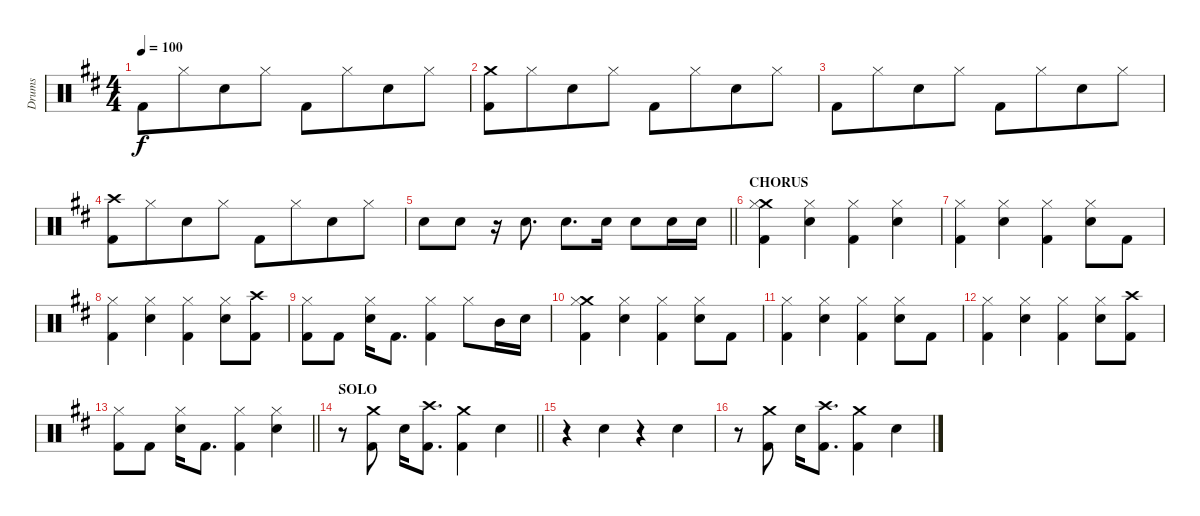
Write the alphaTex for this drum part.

\track ("Drums" "Drums") {instrument percussion}
\staff {score}
\articulation defaults
\ts (4 4)
\tempo 100
\clef neutral
\ks d "Kick (hit) 2".8{dy f} "Hi-Hat (closed)".8{beam merge} "Electric Snare (hit)".8 "Hi-Hat (closed)".8 "Kick (hit) 2".8 "Hi-Hat (closed)".8{beam merge} "Electric Snare (hit)".8 "Hi-Hat (closed)".8
|
("Crash medium (hit)" "Kick (hit) 2").8 "Hi-Hat (closed)".8{beam merge} "Electric Snare (hit)".8 "Hi-Hat (closed)".8 "Kick (hit) 2".8 "Hi-Hat (closed)".8{beam merge} "Electric Snare (hit)".8 "Hi-Hat (closed)".8 |
"Kick (hit) 2".8 "Hi-Hat (closed)".8{beam merge} "Electric Snare (hit)".8 "Hi-Hat (closed)".8 "Kick (hit) 2".8 "Hi-Hat (closed)".8{beam merge} "Electric Snare (hit)".8 "Hi-Hat (closed)".8 |
("Crash high (hit)" "Kick (hit) 2").8 "Hi-Hat (closed)".8{beam merge} "Electric Snare (hit)".8 "Hi-Hat (closed)".8 "Kick (hit) 2".8 "Hi-Hat (closed)".8{beam merge} "Electric Snare (hit)".8 "Hi-Hat (closed)".8 |
\barLineRight lightlight "Electric Snare (hit)".8 "Electric Snare (hit)".8
r.16 "Electric Snare (hit)".8{d} "Electric Snare (hit)".8{d} "Electric Snare (hit)".16 "Electric Snare (hit)".8 "Electric Snare (hit)".16 "Electric Snare (hit)".16 |
\section ("" "CHORUS")
("Crash medium (hit)" "Hi-Hat (closed)" "Kick (hit) 2").4{beam merge} ("Hi-Hat (closed)" "Electric Snare (hit)").4 ("Hi-Hat (closed)" "Kick (hit) 2").4{beam merge} ("Hi-Hat (closed)" "Electric Snare (hit)").4 |
("Hi-Hat (closed)" "Kick (hit) 2").4{beam merge} ("Hi-Hat (closed)" "Electric Snare (hit)").4 ("Hi-Hat (closed)" "Kick (hit) 2").4{beam merge} ("Hi-Hat (closed)" "Electric Snare (hit)").8 "Kick (hit) 2".8 |
("Hi-Hat (closed)" "Kick (hit) 2").4{beam merge} ("Hi-Hat (closed)" "Electric Snare (hit)").4 ("Hi-Hat (closed)" "Kick (hit) 2").4{beam merge} ("Hi-Hat (closed)" "Electric Snare (hit)").8 ("Crash high (hit)" "Kick (hit) 2").8 |
("Hi-Hat (closed)" "Kick (hit) 2").8 "Kick (hit) 2".8 ("Hi-Hat (closed)" "Electric Snare (hit)").16 "Kick (hit) 2".8{d} ("Hi-Hat (closed)" "Kick (hit) 2").4 "Hi-Hat (closed)".8 "Mid Tom (hit)".16 "Electric Snare (hit)".16 |
("Crash medium (hit)" "Hi-Hat (closed)" "Kick (hit) 2").4{beam merge} ("Hi-Hat (closed)" "Electric Snare (hit)").4 ("Hi-Hat (closed)" "Kick (hit) 2").4{beam merge} ("Hi-Hat (closed)" "Electric Snare (hit)").8 "Kick (hit) 2".8 |
("Hi-Hat (closed)" "Kick (hit) 2").4{beam merge} ("Hi-Hat (closed)" "Electric Snare (hit)").4 ("Hi-Hat (closed)" "Kick (hit) 2").4{beam merge} ("Hi-Hat (closed)" "Electric Snare (hit)").8 "Kick (hit) 2".8 |
("Hi-Hat (closed)" "Kick (hit) 2").4{beam merge} ("Hi-Hat (closed)" "Electric Snare (hit)").4 ("Hi-Hat (closed)" "Kick (hit) 2").4{beam merge} ("Hi-Hat (closed)" "Electric Snare (hit)").8 ("Crash high (hit)" "Kick (hit) 2").8 |
\barLineRight lightlight
("Hi-Hat (closed)" "Kick (hit) 2").8 "Kick (hit) 2".8 ("Hi-Hat (closed)" "Electric Snare (hit)").16 "Kick (hit) 2".8{d} ("Hi-Hat (closed)" "Kick (hit) 2").4 ("Hi-Hat (closed)" "Electric Snare (hit)").4 |
\section ("" "SOLO")
\barLineRight lightlight
r.8 ("Crash medium (hit)" "Kick (hit) 2").8 "Electric Snare (hit)".16 ("Crash high (hit)" "Kick (hit) 2").8{d} ("Crash medium (hit)" "Kick (hit) 2").4 "Electric Snare (hit)".4 |
r.4 "Electric Snare (hit)".4 r.4 "Electric Snare (hit)".4 |
r.8 ("Crash medium (hit)" "Kick (hit) 2").8 "Electric Snare (hit)".16 ("Crash high (hit)" "Kick (hit) 2").8{d} ("Crash medium (hit)" "Kick (hit) 2").4 "Electric Snare (hit)".4
